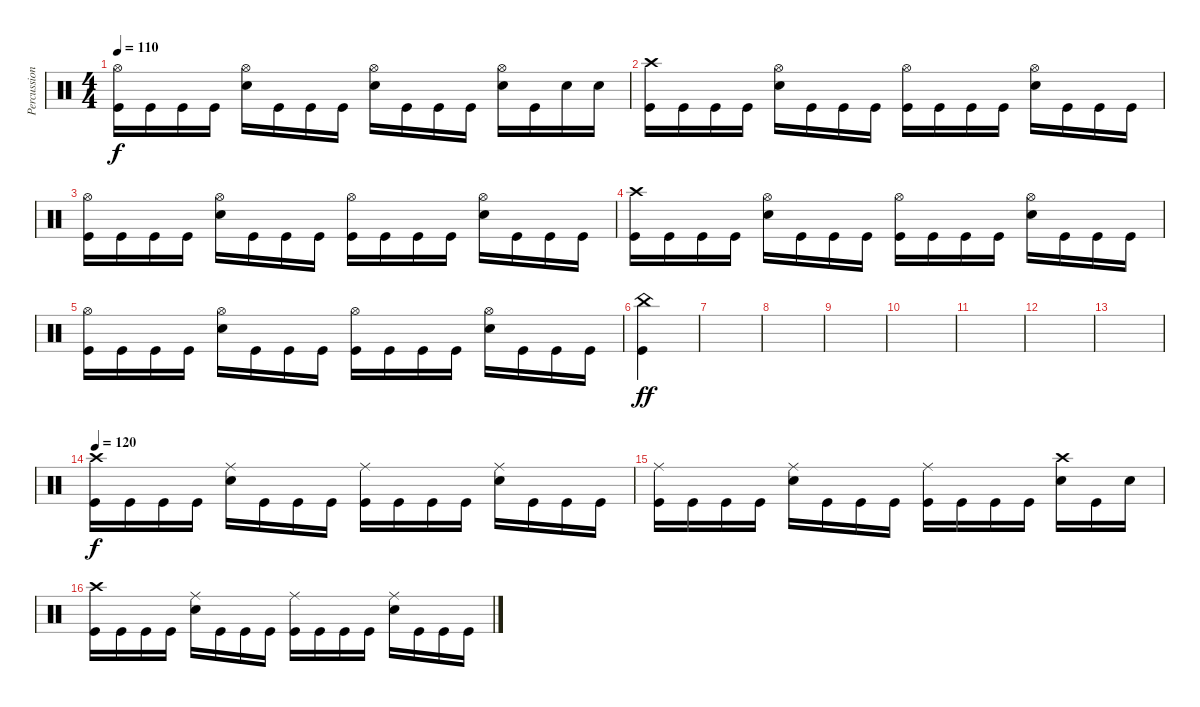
\track ("Percussion" "Percussion") {instrument percussion}
\staff {score}
\articulation defaults
\ts (4 4)
\tempo 110
\clef neutral
\ks c
("Kick (hit)" "Hi-Hat (open)").16{dy f} "Kick (hit)".16 "Kick (hit)".16 "Kick (hit)".16 ("Electric Snare (hit)" "Hi-Hat (open)").16 "Kick (hit)".16 "Kick (hit)".16 "Kick (hit)".16 ("Electric Snare (hit)" "Hi-Hat (open)").16 "Kick (hit)".16 "Kick (hit)".16 "Kick (hit)".16 ("Electric Snare (hit)" "Hi-Hat (open)").16 "Kick (hit)".16 "Electric Snare (hit)".16 "Electric Snare (hit)".16 |
("Kick (hit)" "Crash high (hit)").16 "Kick (hit)".16 "Kick (hit)".16 "Kick (hit)".16 ("Electric Snare (hit)" "Hi-Hat (open)").16 "Kick (hit)".16 "Kick (hit)".16 "Kick (hit)".16 ("Kick (hit)" "Hi-Hat (open)").16 "Kick (hit)".16 "Kick (hit)".16 "Kick (hit)".16 ("Electric Snare (hit)" "Hi-Hat (open)").16 "Kick (hit)".16 "Kick (hit)".16 "Kick (hit)".16 |
("Kick (hit)" "Hi-Hat (open)").16 "Kick (hit)".16 "Kick (hit)".16 "Kick (hit)".16 ("Electric Snare (hit)" "Hi-Hat (open)").16 "Kick (hit)".16 "Kick (hit)".16 "Kick (hit)".16 ("Kick (hit)" "Hi-Hat (open)").16 "Kick (hit)".16 "Kick (hit)".16 "Kick (hit)".16 ("Electric Snare (hit)" "Hi-Hat (open)").16 "Kick (hit)".16 "Kick (hit)".16 "Kick (hit)".16 |
("Kick (hit)" "Crash high (hit)").16 "Kick (hit)".16 "Kick (hit)".16 "Kick (hit)".16 ("Electric Snare (hit)" "Hi-Hat (open)").16 "Kick (hit)".16 "Kick (hit)".16 "Kick (hit)".16 ("Kick (hit)" "Hi-Hat (open)").16 "Kick (hit)".16 "Kick (hit)".16 "Kick (hit)".16 ("Electric Snare (hit)" "Hi-Hat (open)").16 "Kick (hit)".16 "Kick (hit)".16 "Kick (hit)".16 |
("Kick (hit)" "Hi-Hat (open)").16 "Kick (hit)".16 "Kick (hit)".16 "Kick (hit)".16 ("Electric Snare (hit)" "Hi-Hat (open)").16 "Kick (hit)".16 "Kick (hit)".16 "Kick (hit)".16 ("Kick (hit)" "Hi-Hat (open)").16 "Kick (hit)".16 "Kick (hit)".16 "Kick (hit)".16 ("Electric Snare (hit)" "Hi-Hat (open)").16 "Kick (hit)".16 "Kick (hit)".16 "Kick (hit)".16 |
("Kick (hit)" "China (hit)").4{dy ff} |
|
|
|
|
|
|
|
\tempo 120
("Kick (hit)" "Crash high (hit)").16{dy f} "Kick (hit)".16 "Kick (hit)".16 "Kick (hit)".16 ("Electric Snare (hit)" "Ride (middle)").16 "Kick (hit)".16 "Kick (hit)".16 "Kick (hit)".16 ("Kick (hit)" "Ride (middle)").16 "Kick (hit)".16 "Kick (hit)".16 "Kick (hit)".16 ("Electric Snare (hit)" "Ride (middle)").16 "Kick (hit)".16 "Kick (hit)".16 "Kick (hit)".16 |
("Kick (hit)" "Ride (middle)").16 "Kick (hit)".16 "Kick (hit)".16 "Kick (hit)".16 ("Electric Snare (hit)" "Ride (middle)").16 "Kick (hit)".16 "Kick (hit)".16 "Kick (hit)".16 ("Kick (hit)" "Ride (middle)").16 "Kick (hit)".16 "Kick (hit)".16 "Kick (hit)".16 ("Electric Snare (hit)" "Crash high (hit)").16 "Kick (hit)".16 "Electric Snare (hit)".16 |
("Kick (hit)" "Crash high (hit)").16 "Kick (hit)".16 "Kick (hit)".16 "Kick (hit)".16 ("Electric Snare (hit)" "Ride (middle)").16 "Kick (hit)".16 "Kick (hit)".16 "Kick (hit)".16 ("Kick (hit)" "Ride (middle)").16 "Kick (hit)".16 "Kick (hit)".16 "Kick (hit)".16 ("Electric Snare (hit)" "Ride (middle)").16 "Kick (hit)".16 "Kick (hit)".16 "Kick (hit)".16
